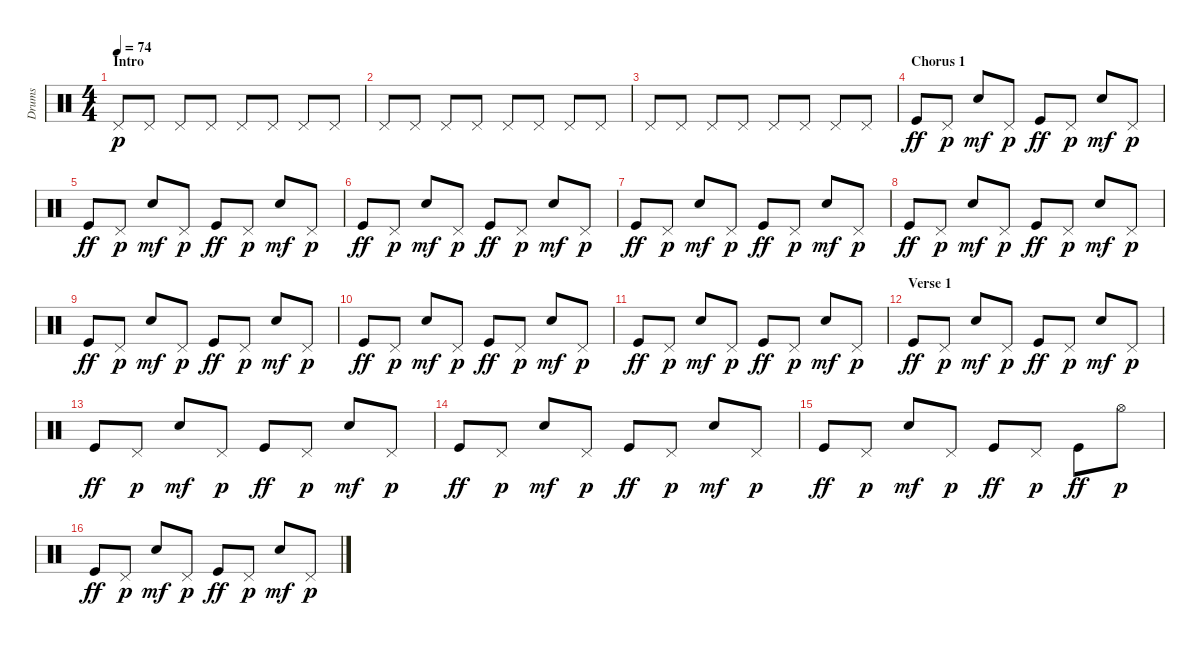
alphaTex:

\track ("Drums" "Drums") {instrument percussion}
\staff {score}
\articulation defaults
\ts (4 4)
\section ("" "Intro")
\tempo 74
\clef neutral
\ks c "Pedal Hi-Hat (hit)".8{dy p} "Pedal Hi-Hat (hit)".8 "Pedal Hi-Hat (hit)".8 "Pedal Hi-Hat (hit)".8 "Pedal Hi-Hat (hit)".8 "Pedal Hi-Hat (hit)".8 "Pedal Hi-Hat (hit)".8 "Pedal Hi-Hat (hit)".8
|
"Pedal Hi-Hat (hit)".8 "Pedal Hi-Hat (hit)".8 "Pedal Hi-Hat (hit)".8 "Pedal Hi-Hat (hit)".8 "Pedal Hi-Hat (hit)".8 "Pedal Hi-Hat (hit)".8 "Pedal Hi-Hat (hit)".8 "Pedal Hi-Hat (hit)".8 |
"Pedal Hi-Hat (hit)".8 "Pedal Hi-Hat (hit)".8 "Pedal Hi-Hat (hit)".8 "Pedal Hi-Hat (hit)".8 "Pedal Hi-Hat (hit)".8 "Pedal Hi-Hat (hit)".8 "Pedal Hi-Hat (hit)".8 "Pedal Hi-Hat (hit)".8 |
\section ("" "Chorus 1")
"Kick (hit)".8{dy ff} "Pedal Hi-Hat (hit)".8{dy p} "Electric Snare (hit)".8{dy mf} "Pedal Hi-Hat (hit)".8{dy p} "Kick (hit)".8{dy ff} "Pedal Hi-Hat (hit)".8{dy p} "Electric Snare (hit)".8{dy mf} "Pedal Hi-Hat (hit)".8{dy p} |
"Kick (hit)".8{dy ff} "Pedal Hi-Hat (hit)".8{dy p} "Electric Snare (hit)".8{dy mf} "Pedal Hi-Hat (hit)".8{dy p} "Kick (hit)".8{dy ff} "Pedal Hi-Hat (hit)".8{dy p} "Electric Snare (hit)".8{dy mf} "Pedal Hi-Hat (hit)".8{dy p} |
"Kick (hit)".8{dy ff} "Pedal Hi-Hat (hit)".8{dy p} "Electric Snare (hit)".8{dy mf} "Pedal Hi-Hat (hit)".8{dy p} "Kick (hit)".8{dy ff} "Pedal Hi-Hat (hit)".8{dy p} "Electric Snare (hit)".8{dy mf} "Pedal Hi-Hat (hit)".8{dy p} |
"Kick (hit)".8{dy ff} "Pedal Hi-Hat (hit)".8{dy p} "Electric Snare (hit)".8{dy mf} "Pedal Hi-Hat (hit)".8{dy p} "Kick (hit)".8{dy ff} "Pedal Hi-Hat (hit)".8{dy p} "Electric Snare (hit)".8{dy mf} "Pedal Hi-Hat (hit)".8{dy p} |
"Kick (hit)".8{dy ff} "Pedal Hi-Hat (hit)".8{dy p} "Electric Snare (hit)".8{dy mf} "Pedal Hi-Hat (hit)".8{dy p} "Kick (hit)".8{dy ff} "Pedal Hi-Hat (hit)".8{dy p} "Electric Snare (hit)".8{dy mf} "Pedal Hi-Hat (hit)".8{dy p} |
"Kick (hit)".8{dy ff} "Pedal Hi-Hat (hit)".8{dy p} "Electric Snare (hit)".8{dy mf} "Pedal Hi-Hat (hit)".8{dy p} "Kick (hit)".8{dy ff} "Pedal Hi-Hat (hit)".8{dy p} "Electric Snare (hit)".8{dy mf} "Pedal Hi-Hat (hit)".8{dy p} |
"Kick (hit)".8{dy ff} "Pedal Hi-Hat (hit)".8{dy p} "Electric Snare (hit)".8{dy mf} "Pedal Hi-Hat (hit)".8{dy p} "Kick (hit)".8{dy ff} "Pedal Hi-Hat (hit)".8{dy p} "Electric Snare (hit)".8{dy mf} "Pedal Hi-Hat (hit)".8{dy p} |
"Kick (hit)".8{dy ff} "Pedal Hi-Hat (hit)".8{dy p} "Electric Snare (hit)".8{dy mf} "Pedal Hi-Hat (hit)".8{dy p} "Kick (hit)".8{dy ff} "Pedal Hi-Hat (hit)".8{dy p} "Electric Snare (hit)".8{dy mf} "Pedal Hi-Hat (hit)".8{dy p} |
\section ("" "Verse 1")
"Kick (hit)".8{dy ff} "Pedal Hi-Hat (hit)".8{dy p} "Electric Snare (hit)".8{dy mf} "Pedal Hi-Hat (hit)".8{dy p} "Kick (hit)".8{dy ff} "Pedal Hi-Hat (hit)".8{dy p} "Electric Snare (hit)".8{dy mf} "Pedal Hi-Hat (hit)".8{dy p} |
"Kick (hit)".8{dy ff} "Pedal Hi-Hat (hit)".8{dy p} "Electric Snare (hit)".8{dy mf} "Pedal Hi-Hat (hit)".8{dy p} "Kick (hit)".8{dy ff} "Pedal Hi-Hat (hit)".8{dy p} "Electric Snare (hit)".8{dy mf} "Pedal Hi-Hat (hit)".8{dy p} |
"Kick (hit)".8{dy ff} "Pedal Hi-Hat (hit)".8{dy p} "Electric Snare (hit)".8{dy mf} "Pedal Hi-Hat (hit)".8{dy p} "Kick (hit)".8{dy ff} "Pedal Hi-Hat (hit)".8{dy p} "Electric Snare (hit)".8{dy mf} "Pedal Hi-Hat (hit)".8{dy p} |
"Kick (hit)".8{dy ff} "Pedal Hi-Hat (hit)".8{dy p} "Electric Snare (hit)".8{dy mf} "Pedal Hi-Hat (hit)".8{dy p} "Kick (hit)".8{dy ff} "Pedal Hi-Hat (hit)".8{dy p} "Kick (hit)".8{dy ff} "Hi-Hat (open)".8{dy p} |
"Kick (hit)".8{dy ff} "Pedal Hi-Hat (hit)".8{dy p} "Electric Snare (hit)".8{dy mf} "Pedal Hi-Hat (hit)".8{dy p} "Kick (hit)".8{dy ff} "Pedal Hi-Hat (hit)".8{dy p} "Electric Snare (hit)".8{dy mf} "Pedal Hi-Hat (hit)".8{dy p}
